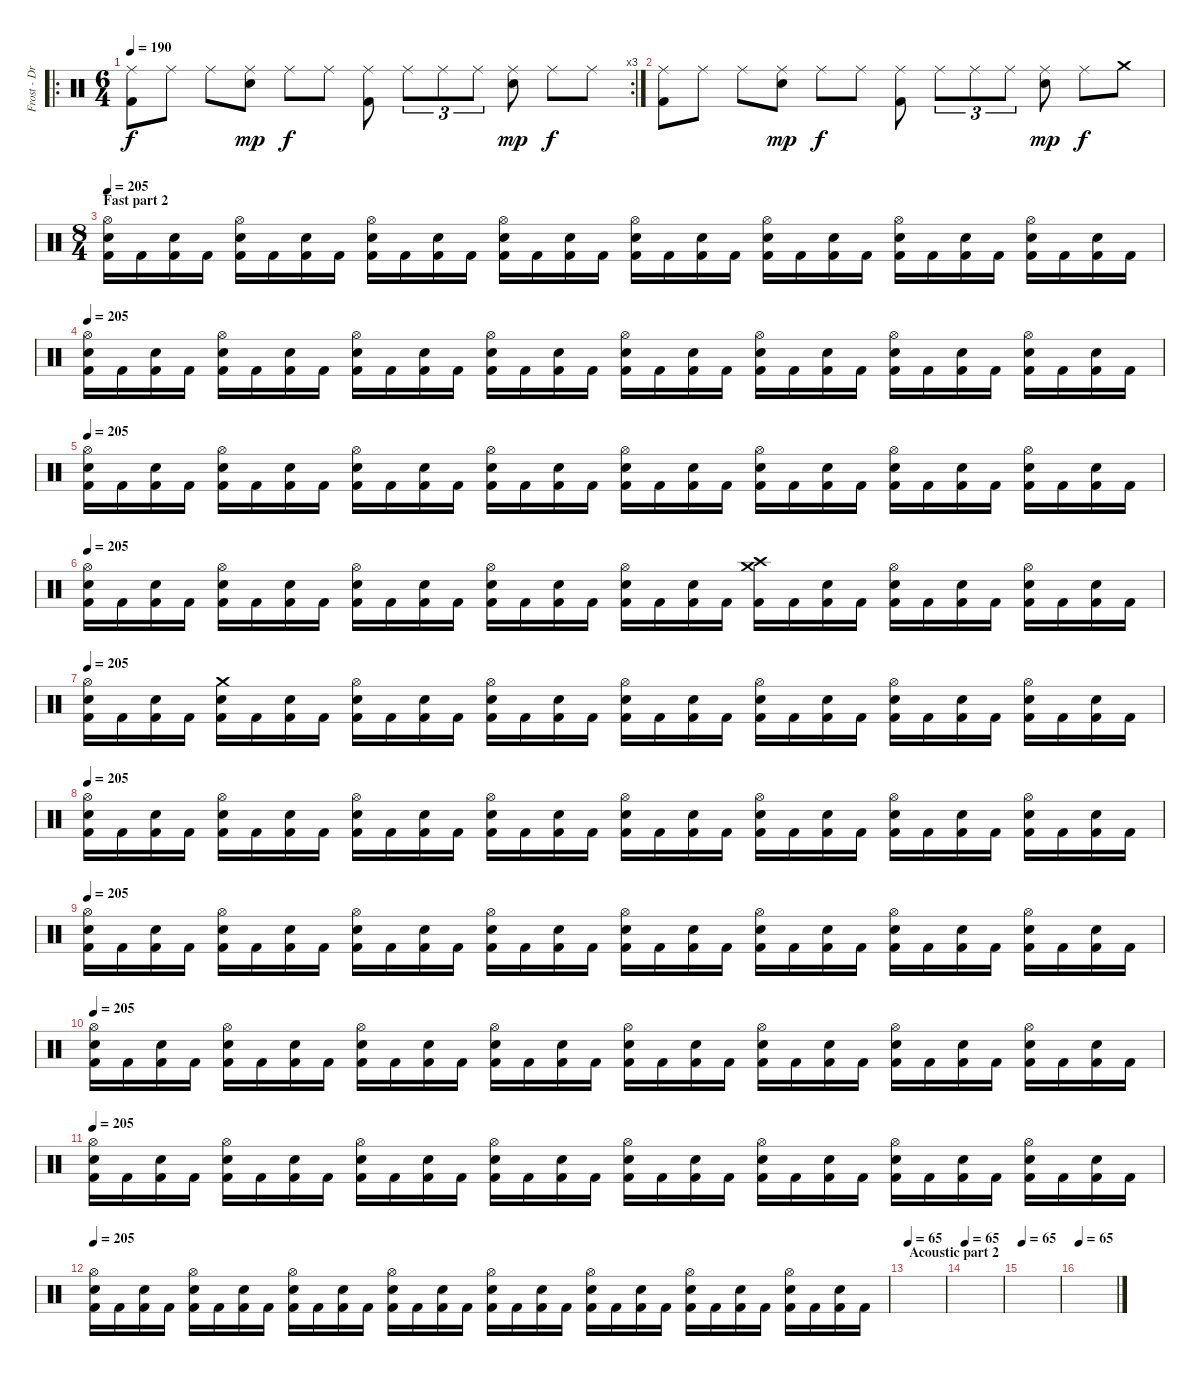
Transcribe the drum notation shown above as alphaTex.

\track ("Frost - Drums" "Frost - Dr") {instrument percussion}
\staff {score}
\articulation defaults
\ro
\rc 3
\ts (6 4)
\tempo 190
\clef neutral
\ks c
("Ride (middle)" "Kick (hit) 2").8{dy f} "Ride (middle)".8 "Ride (middle)".8 ("Ride (middle)" "Electric Snare (hit)").8{dy mp} "Ride (middle)".8{dy f} "Ride (middle)".8 ("Ride (middle)" "Kick (hit) 2").8 "Ride (middle)".8{tu (3 2)} "Ride (middle)".8{tu (3 2)} "Ride (middle)".8{tu (3 2)} ("Ride (middle)" "Electric Snare (hit)").8{dy mp} "Ride (middle)".8{dy f} "Ride (middle)".8 |
("Ride (middle)" "Kick (hit) 2").8 "Ride (middle)".8 "Ride (middle)".8 ("Ride (middle)" "Electric Snare (hit)").8{dy mp} "Ride (middle)".8{dy f} "Ride (middle)".8 ("Ride (middle)" "Kick (hit) 2").8 "Ride (middle)".8{tu (3 2)} "Ride (middle)".8{tu (3 2)} "Ride (middle)".8{tu (3 2)} ("Ride (middle)" "Electric Snare (hit)").8{dy mp} "Ride (middle)".8{dy f} "Crash medium (hit)".8 |
\ts (8 4)
\section ("" "Fast part 2")
\tempo 205
("Electric Snare (hit)" "Hi-Hat (open)" "Kick (hit) 2").16 "Kick (hit) 2".16 ("Electric Snare (hit)" "Kick (hit) 2").16 "Kick (hit) 2".16 ("Electric Snare (hit)" "Hi-Hat (open)" "Kick (hit) 2").16 "Kick (hit) 2".16 ("Electric Snare (hit)" "Kick (hit) 2").16 "Kick (hit) 2".16 ("Electric Snare (hit)" "Hi-Hat (open)" "Kick (hit) 2").16 "Kick (hit) 2".16 ("Electric Snare (hit)" "Kick (hit) 2").16 "Kick (hit) 2".16 ("Electric Snare (hit)" "Hi-Hat (open)" "Kick (hit) 2").16 "Kick (hit) 2".16 ("Electric Snare (hit)" "Kick (hit) 2").16 "Kick (hit) 2".16 ("Electric Snare (hit)" "Hi-Hat (open)" "Kick (hit) 2").16 "Kick (hit) 2".16 ("Electric Snare (hit)" "Kick (hit) 2").16 "Kick (hit) 2".16 ("Electric Snare (hit)" "Hi-Hat (open)" "Kick (hit) 2").16 "Kick (hit) 2".16 ("Electric Snare (hit)" "Kick (hit) 2").16 "Kick (hit) 2".16 ("Electric Snare (hit)" "Hi-Hat (open)" "Kick (hit) 2").16 "Kick (hit) 2".16 ("Electric Snare (hit)" "Kick (hit) 2").16 "Kick (hit) 2".16 ("Electric Snare (hit)" "Hi-Hat (open)" "Kick (hit) 2").16 "Kick (hit) 2".16 ("Electric Snare (hit)" "Kick (hit) 2").16 "Kick (hit) 2".16 |
\tempo 205
("Electric Snare (hit)" "Hi-Hat (open)" "Kick (hit) 2").16 "Kick (hit) 2".16 ("Electric Snare (hit)" "Kick (hit) 2").16 "Kick (hit) 2".16 ("Electric Snare (hit)" "Hi-Hat (open)" "Kick (hit) 2").16 "Kick (hit) 2".16 ("Electric Snare (hit)" "Kick (hit) 2").16 "Kick (hit) 2".16 ("Electric Snare (hit)" "Hi-Hat (open)" "Kick (hit) 2").16 "Kick (hit) 2".16 ("Electric Snare (hit)" "Kick (hit) 2").16 "Kick (hit) 2".16 ("Electric Snare (hit)" "Hi-Hat (open)" "Kick (hit) 2").16 "Kick (hit) 2".16 ("Electric Snare (hit)" "Kick (hit) 2").16 "Kick (hit) 2".16 ("Electric Snare (hit)" "Hi-Hat (open)" "Kick (hit) 2").16 "Kick (hit) 2".16 ("Electric Snare (hit)" "Kick (hit) 2").16 "Kick (hit) 2".16 ("Electric Snare (hit)" "Hi-Hat (open)" "Kick (hit) 2").16 "Kick (hit) 2".16 ("Electric Snare (hit)" "Kick (hit) 2").16 "Kick (hit) 2".16 ("Electric Snare (hit)" "Hi-Hat (open)" "Kick (hit) 2").16 "Kick (hit) 2".16 ("Electric Snare (hit)" "Kick (hit) 2").16 "Kick (hit) 2".16 ("Electric Snare (hit)" "Hi-Hat (open)" "Kick (hit) 2").16 "Kick (hit) 2".16 ("Electric Snare (hit)" "Kick (hit) 2").16 "Kick (hit) 2".16 |
\tempo 205
("Electric Snare (hit)" "Hi-Hat (open)" "Kick (hit) 2").16 "Kick (hit) 2".16 ("Electric Snare (hit)" "Kick (hit) 2").16 "Kick (hit) 2".16 ("Electric Snare (hit)" "Hi-Hat (open)" "Kick (hit) 2").16 "Kick (hit) 2".16 ("Electric Snare (hit)" "Kick (hit) 2").16 "Kick (hit) 2".16 ("Electric Snare (hit)" "Hi-Hat (open)" "Kick (hit) 2").16 "Kick (hit) 2".16 ("Electric Snare (hit)" "Kick (hit) 2").16 "Kick (hit) 2".16 ("Electric Snare (hit)" "Hi-Hat (open)" "Kick (hit) 2").16 "Kick (hit) 2".16 ("Electric Snare (hit)" "Kick (hit) 2").16 "Kick (hit) 2".16 ("Electric Snare (hit)" "Hi-Hat (open)" "Kick (hit) 2").16 "Kick (hit) 2".16 ("Electric Snare (hit)" "Kick (hit) 2").16 "Kick (hit) 2".16 ("Electric Snare (hit)" "Hi-Hat (open)" "Kick (hit) 2").16 "Kick (hit) 2".16 ("Electric Snare (hit)" "Kick (hit) 2").16 "Kick (hit) 2".16 ("Electric Snare (hit)" "Hi-Hat (open)" "Kick (hit) 2").16 "Kick (hit) 2".16 ("Electric Snare (hit)" "Kick (hit) 2").16 "Kick (hit) 2".16 ("Electric Snare (hit)" "Hi-Hat (open)" "Kick (hit) 2").16 "Kick (hit) 2".16 ("Electric Snare (hit)" "Kick (hit) 2").16 "Kick (hit) 2".16 |
\tempo 205
("Electric Snare (hit)" "Hi-Hat (open)" "Kick (hit) 2").16 "Kick (hit) 2".16 ("Electric Snare (hit)" "Kick (hit) 2").16 "Kick (hit) 2".16 ("Electric Snare (hit)" "Hi-Hat (open)" "Kick (hit) 2").16 "Kick (hit) 2".16 ("Electric Snare (hit)" "Kick (hit) 2").16 "Kick (hit) 2".16 ("Electric Snare (hit)" "Hi-Hat (open)" "Kick (hit) 2").16 "Kick (hit) 2".16 ("Electric Snare (hit)" "Kick (hit) 2").16 "Kick (hit) 2".16 ("Electric Snare (hit)" "Hi-Hat (open)" "Kick (hit) 2").16 "Kick (hit) 2".16 ("Electric Snare (hit)" "Kick (hit) 2").16 "Kick (hit) 2".16 ("Electric Snare (hit)" "Hi-Hat (open)" "Kick (hit) 2").16 "Kick (hit) 2".16 ("Electric Snare (hit)" "Kick (hit) 2").16 "Kick (hit) 2".16 ("Crash medium (hit)" "Crash high (hit)" "Kick (hit) 2").16 "Kick (hit) 2".16 ("Electric Snare (hit)" "Kick (hit) 2").16 "Kick (hit) 2".16 ("Electric Snare (hit)" "Hi-Hat (open)" "Kick (hit) 2").16 "Kick (hit) 2".16 ("Electric Snare (hit)" "Kick (hit) 2").16 "Kick (hit) 2".16 ("Electric Snare (hit)" "Hi-Hat (open)" "Kick (hit) 2").16 "Kick (hit) 2".16 ("Electric Snare (hit)" "Kick (hit) 2").16 "Kick (hit) 2".16 |
\tempo 205
("Electric Snare (hit)" "Hi-Hat (open)" "Kick (hit) 2").16 "Kick (hit) 2".16 ("Electric Snare (hit)" "Kick (hit) 2").16 "Kick (hit) 2".16 ("Electric Snare (hit)" "Crash medium (hit)" "Kick (hit) 2").16 "Kick (hit) 2".16 ("Electric Snare (hit)" "Kick (hit) 2").16 "Kick (hit) 2".16 ("Electric Snare (hit)" "Hi-Hat (open)" "Kick (hit) 2").16 "Kick (hit) 2".16 ("Electric Snare (hit)" "Kick (hit) 2").16 "Kick (hit) 2".16 ("Electric Snare (hit)" "Hi-Hat (open)" "Kick (hit) 2").16 "Kick (hit) 2".16 ("Electric Snare (hit)" "Kick (hit) 2").16 "Kick (hit) 2".16 ("Electric Snare (hit)" "Hi-Hat (open)" "Kick (hit) 2").16 "Kick (hit) 2".16 ("Electric Snare (hit)" "Kick (hit) 2").16 "Kick (hit) 2".16 ("Electric Snare (hit)" "Hi-Hat (open)" "Kick (hit) 2").16 "Kick (hit) 2".16 ("Electric Snare (hit)" "Kick (hit) 2").16 "Kick (hit) 2".16 ("Electric Snare (hit)" "Hi-Hat (open)" "Kick (hit) 2").16 "Kick (hit) 2".16 ("Electric Snare (hit)" "Kick (hit) 2").16 "Kick (hit) 2".16 ("Electric Snare (hit)" "Hi-Hat (open)" "Kick (hit) 2").16 "Kick (hit) 2".16 ("Electric Snare (hit)" "Kick (hit) 2").16 "Kick (hit) 2".16 |
\tempo 205
("Electric Snare (hit)" "Hi-Hat (open)" "Kick (hit) 2").16 "Kick (hit) 2".16 ("Electric Snare (hit)" "Kick (hit) 2").16 "Kick (hit) 2".16 ("Electric Snare (hit)" "Hi-Hat (open)" "Kick (hit) 2").16 "Kick (hit) 2".16 ("Electric Snare (hit)" "Kick (hit) 2").16 "Kick (hit) 2".16 ("Electric Snare (hit)" "Hi-Hat (open)" "Kick (hit) 2").16 "Kick (hit) 2".16 ("Electric Snare (hit)" "Kick (hit) 2").16 "Kick (hit) 2".16 ("Electric Snare (hit)" "Hi-Hat (open)" "Kick (hit) 2").16 "Kick (hit) 2".16 ("Electric Snare (hit)" "Kick (hit) 2").16 "Kick (hit) 2".16 ("Electric Snare (hit)" "Hi-Hat (open)" "Kick (hit) 2").16 "Kick (hit) 2".16 ("Electric Snare (hit)" "Kick (hit) 2").16 "Kick (hit) 2".16 ("Electric Snare (hit)" "Hi-Hat (open)" "Kick (hit) 2").16 "Kick (hit) 2".16 ("Electric Snare (hit)" "Kick (hit) 2").16 "Kick (hit) 2".16 ("Electric Snare (hit)" "Hi-Hat (open)" "Kick (hit) 2").16 "Kick (hit) 2".16 ("Electric Snare (hit)" "Kick (hit) 2").16 "Kick (hit) 2".16 ("Electric Snare (hit)" "Hi-Hat (open)" "Kick (hit) 2").16 "Kick (hit) 2".16 ("Electric Snare (hit)" "Kick (hit) 2").16 "Kick (hit) 2".16 |
\tempo 205
("Electric Snare (hit)" "Hi-Hat (open)" "Kick (hit) 2").16 "Kick (hit) 2".16 ("Electric Snare (hit)" "Kick (hit) 2").16 "Kick (hit) 2".16 ("Electric Snare (hit)" "Hi-Hat (open)" "Kick (hit) 2").16 "Kick (hit) 2".16 ("Electric Snare (hit)" "Kick (hit) 2").16 "Kick (hit) 2".16 ("Electric Snare (hit)" "Hi-Hat (open)" "Kick (hit) 2").16 "Kick (hit) 2".16 ("Electric Snare (hit)" "Kick (hit) 2").16 "Kick (hit) 2".16 ("Electric Snare (hit)" "Hi-Hat (open)" "Kick (hit) 2").16 "Kick (hit) 2".16 ("Electric Snare (hit)" "Kick (hit) 2").16 "Kick (hit) 2".16 ("Electric Snare (hit)" "Hi-Hat (open)" "Kick (hit) 2").16 "Kick (hit) 2".16 ("Electric Snare (hit)" "Kick (hit) 2").16 "Kick (hit) 2".16 ("Electric Snare (hit)" "Hi-Hat (open)" "Kick (hit) 2").16 "Kick (hit) 2".16 ("Electric Snare (hit)" "Kick (hit) 2").16 "Kick (hit) 2".16 ("Electric Snare (hit)" "Hi-Hat (open)" "Kick (hit) 2").16 "Kick (hit) 2".16 ("Electric Snare (hit)" "Kick (hit) 2").16 "Kick (hit) 2".16 ("Electric Snare (hit)" "Hi-Hat (open)" "Kick (hit) 2").16 "Kick (hit) 2".16 ("Electric Snare (hit)" "Kick (hit) 2").16 "Kick (hit) 2".16 |
\tempo 205
("Electric Snare (hit)" "Hi-Hat (open)" "Kick (hit) 2").16 "Kick (hit) 2".16 ("Electric Snare (hit)" "Kick (hit) 2").16 "Kick (hit) 2".16 ("Electric Snare (hit)" "Hi-Hat (open)" "Kick (hit) 2").16 "Kick (hit) 2".16 ("Electric Snare (hit)" "Kick (hit) 2").16 "Kick (hit) 2".16 ("Electric Snare (hit)" "Hi-Hat (open)" "Kick (hit) 2").16 "Kick (hit) 2".16 ("Electric Snare (hit)" "Kick (hit) 2").16 "Kick (hit) 2".16 ("Electric Snare (hit)" "Hi-Hat (open)" "Kick (hit) 2").16 "Kick (hit) 2".16 ("Electric Snare (hit)" "Kick (hit) 2").16 "Kick (hit) 2".16 ("Electric Snare (hit)" "Hi-Hat (open)" "Kick (hit) 2").16 "Kick (hit) 2".16 ("Electric Snare (hit)" "Kick (hit) 2").16 "Kick (hit) 2".16 ("Electric Snare (hit)" "Hi-Hat (open)" "Kick (hit) 2").16 "Kick (hit) 2".16 ("Electric Snare (hit)" "Kick (hit) 2").16 "Kick (hit) 2".16 ("Electric Snare (hit)" "Hi-Hat (open)" "Kick (hit) 2").16 "Kick (hit) 2".16 ("Electric Snare (hit)" "Kick (hit) 2").16 "Kick (hit) 2".16 ("Electric Snare (hit)" "Hi-Hat (open)" "Kick (hit) 2").16 "Kick (hit) 2".16 ("Electric Snare (hit)" "Kick (hit) 2").16 "Kick (hit) 2".16 |
\tempo 205
("Electric Snare (hit)" "Hi-Hat (open)" "Kick (hit) 2").16 "Kick (hit) 2".16 ("Electric Snare (hit)" "Kick (hit) 2").16 "Kick (hit) 2".16 ("Electric Snare (hit)" "Hi-Hat (open)" "Kick (hit) 2").16 "Kick (hit) 2".16 ("Electric Snare (hit)" "Kick (hit) 2").16 "Kick (hit) 2".16 ("Electric Snare (hit)" "Hi-Hat (open)" "Kick (hit) 2").16 "Kick (hit) 2".16 ("Electric Snare (hit)" "Kick (hit) 2").16 "Kick (hit) 2".16 ("Electric Snare (hit)" "Hi-Hat (open)" "Kick (hit) 2").16 "Kick (hit) 2".16 ("Electric Snare (hit)" "Kick (hit) 2").16 "Kick (hit) 2".16 ("Electric Snare (hit)" "Hi-Hat (open)" "Kick (hit) 2").16 "Kick (hit) 2".16 ("Electric Snare (hit)" "Kick (hit) 2").16 "Kick (hit) 2".16 ("Electric Snare (hit)" "Hi-Hat (open)" "Kick (hit) 2").16 "Kick (hit) 2".16 ("Electric Snare (hit)" "Kick (hit) 2").16 "Kick (hit) 2".16 ("Electric Snare (hit)" "Hi-Hat (open)" "Kick (hit) 2").16 "Kick (hit) 2".16 ("Electric Snare (hit)" "Kick (hit) 2").16 "Kick (hit) 2".16 ("Electric Snare (hit)" "Hi-Hat (open)" "Kick (hit) 2").16 "Kick (hit) 2".16 ("Electric Snare (hit)" "Kick (hit) 2").16 "Kick (hit) 2".16 |
\tempo 205
("Electric Snare (hit)" "Hi-Hat (open)" "Kick (hit) 2").16 "Kick (hit) 2".16 ("Electric Snare (hit)" "Kick (hit) 2").16 "Kick (hit) 2".16 ("Electric Snare (hit)" "Hi-Hat (open)" "Kick (hit) 2").16 "Kick (hit) 2".16 ("Electric Snare (hit)" "Kick (hit) 2").16 "Kick (hit) 2".16 ("Electric Snare (hit)" "Hi-Hat (open)" "Kick (hit) 2").16 "Kick (hit) 2".16 ("Electric Snare (hit)" "Kick (hit) 2").16 "Kick (hit) 2".16 ("Electric Snare (hit)" "Hi-Hat (open)" "Kick (hit) 2").16 "Kick (hit) 2".16 ("Electric Snare (hit)" "Kick (hit) 2").16 "Kick (hit) 2".16 ("Electric Snare (hit)" "Hi-Hat (open)" "Kick (hit) 2").16 "Kick (hit) 2".16 ("Electric Snare (hit)" "Kick (hit) 2").16 "Kick (hit) 2".16 ("Electric Snare (hit)" "Hi-Hat (open)" "Kick (hit) 2").16 "Kick (hit) 2".16 ("Electric Snare (hit)" "Kick (hit) 2").16 "Kick (hit) 2".16 ("Electric Snare (hit)" "Hi-Hat (open)" "Kick (hit) 2").16 "Kick (hit) 2".16 ("Electric Snare (hit)" "Kick (hit) 2").16 "Kick (hit) 2".16 ("Electric Snare (hit)" "Hi-Hat (open)" "Kick (hit) 2").16 "Kick (hit) 2".16 ("Electric Snare (hit)" "Kick (hit) 2").16 "Kick (hit) 2".16 |
\section ("" "Acoustic part 2")
\tempo 65
|
\tempo 65
|
\tempo 65
|
\tempo 65
